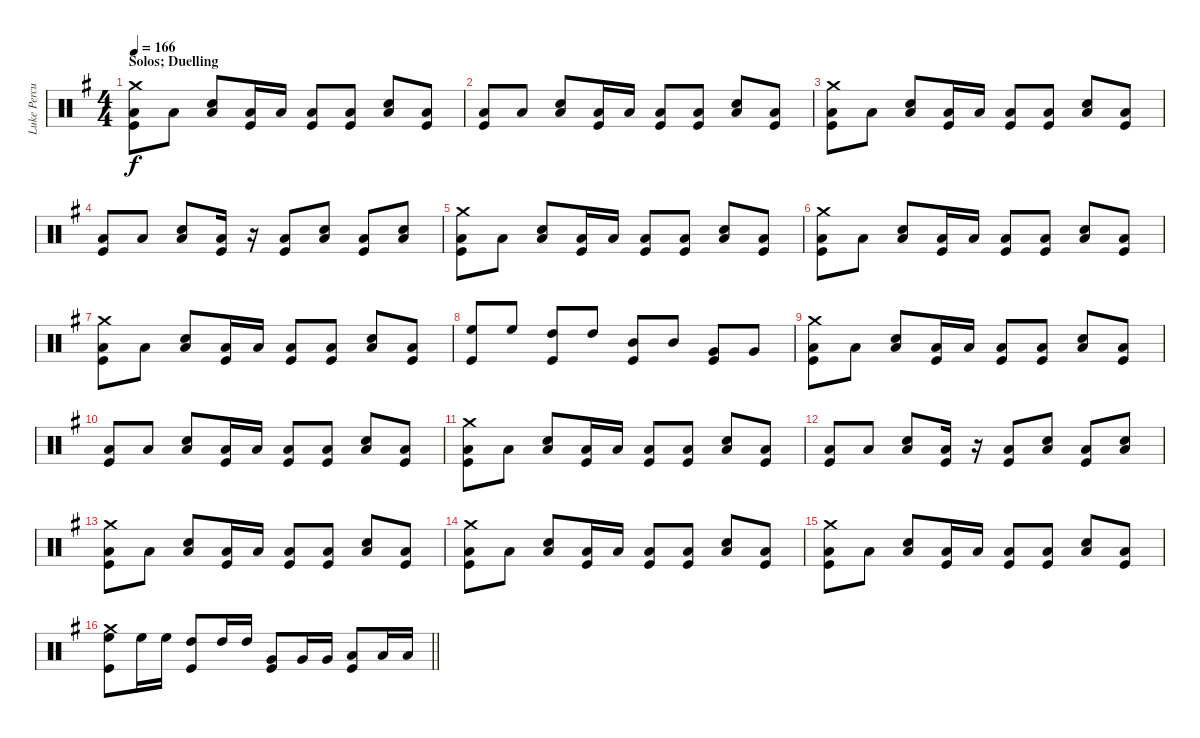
\track ("Luke Percussion" "Luke Percu") {instrument percussion}
\staff {score}
\articulation defaults
\ts (4 4)
\section ("" "Solos; Duelling")
\tempo 166
\clef neutral
\ks eminor
("Crash medium (hit)" "Low Floor Tom (hit)" "Kick (hit)").8{dy f} "Low Floor Tom (hit)".8 ("Snare (hit) 2" "Low Floor Tom (hit)").8 ("Low Floor Tom (hit)" "Kick (hit)").16 "Low Floor Tom (hit)".16 ("Low Floor Tom (hit)" "Kick (hit)").8 ("Low Floor Tom (hit)" "Kick (hit)").8 ("Snare (hit) 2" "Low Floor Tom (hit)").8 ("Low Floor Tom (hit)" "Kick (hit)").8 |
("Low Floor Tom (hit)" "Kick (hit)").8 "Low Floor Tom (hit)".8 ("Snare (hit) 2" "Low Floor Tom (hit)").8 ("Low Floor Tom (hit)" "Kick (hit)").16 "Low Floor Tom (hit)".16 ("Low Floor Tom (hit)" "Kick (hit)").8 ("Low Floor Tom (hit)" "Kick (hit)").8 ("Snare (hit) 2" "Low Floor Tom (hit)").8 ("Low Floor Tom (hit)" "Kick (hit)").8 |
("Crash medium (hit)" "Low Floor Tom (hit)" "Kick (hit)").8 "Low Floor Tom (hit)".8 ("Snare (hit) 2" "Low Floor Tom (hit)").8 ("Low Floor Tom (hit)" "Kick (hit)").16 "Low Floor Tom (hit)".16 ("Low Floor Tom (hit)" "Kick (hit)").8 ("Low Floor Tom (hit)" "Kick (hit)").8 ("Snare (hit) 2" "Low Floor Tom (hit)").8 ("Low Floor Tom (hit)" "Kick (hit)").8 |
("Low Floor Tom (hit)" "Kick (hit)").8 "Low Floor Tom (hit)".8 ("Snare (hit) 2" "Low Floor Tom (hit)").8 ("Low Floor Tom (hit)" "Kick (hit)").16 r.16 ("Low Floor Tom (hit)" "Kick (hit)").8 ("Snare (hit) 2" "Low Floor Tom (hit)").8 ("Low Floor Tom (hit)" "Kick (hit)").8 ("Snare (hit) 2" "Low Floor Tom (hit)").8 |
("Crash medium (hit)" "Low Floor Tom (hit)" "Kick (hit)").8 "Low Floor Tom (hit)".8 ("Snare (hit) 2" "Low Floor Tom (hit)").8 ("Low Floor Tom (hit)" "Kick (hit)").16 "Low Floor Tom (hit)".16 ("Low Floor Tom (hit)" "Kick (hit)").8 ("Low Floor Tom (hit)" "Kick (hit)").8 ("Snare (hit) 2" "Low Floor Tom (hit)").8 ("Low Floor Tom (hit)" "Kick (hit)").8 |
("Crash medium (hit)" "Low Floor Tom (hit)" "Kick (hit)").8 "Low Floor Tom (hit)".8 ("Snare (hit) 2" "Low Floor Tom (hit)").8 ("Low Floor Tom (hit)" "Kick (hit)").16 "Low Floor Tom (hit)".16 ("Low Floor Tom (hit)" "Kick (hit)").8 ("Low Floor Tom (hit)" "Kick (hit)").8 ("Snare (hit) 2" "Low Floor Tom (hit)").8 ("Low Floor Tom (hit)" "Kick (hit)").8 |
("Crash medium (hit)" "Low Floor Tom (hit)" "Kick (hit)").8 "Low Floor Tom (hit)".8 ("Snare (hit) 2" "Low Floor Tom (hit)").8 ("Low Floor Tom (hit)" "Kick (hit)").16 "Low Floor Tom (hit)".16 ("Low Floor Tom (hit)" "Kick (hit)").8 ("Low Floor Tom (hit)" "Kick (hit)").8 ("Snare (hit) 2" "Low Floor Tom (hit)").8 ("Low Floor Tom (hit)" "Kick (hit)").8 |
("High Floor Tom (hit)" "Kick (hit)").8 "High Floor Tom (hit)".8 ("High Tom (hit)" "Kick (hit)").8 "High Tom (hit)".8 ("Mid Tom (hit)" "Kick (hit)").8 "Mid Tom (hit)".8 ("Very Low Tom (hit)" "Kick (hit)").8 "Very Low Tom (hit)".8 |
("Crash medium (hit)" "Low Floor Tom (hit)" "Kick (hit)").8 "Low Floor Tom (hit)".8 ("Snare (hit) 2" "Low Floor Tom (hit)").8 ("Low Floor Tom (hit)" "Kick (hit)").16 "Low Floor Tom (hit)".16 ("Low Floor Tom (hit)" "Kick (hit)").8 ("Low Floor Tom (hit)" "Kick (hit)").8 ("Snare (hit) 2" "Low Floor Tom (hit)").8 ("Low Floor Tom (hit)" "Kick (hit)").8 |
("Low Floor Tom (hit)" "Kick (hit)").8 "Low Floor Tom (hit)".8 ("Snare (hit) 2" "Low Floor Tom (hit)").8 ("Low Floor Tom (hit)" "Kick (hit)").16 "Low Floor Tom (hit)".16 ("Low Floor Tom (hit)" "Kick (hit)").8 ("Low Floor Tom (hit)" "Kick (hit)").8 ("Snare (hit) 2" "Low Floor Tom (hit)").8 ("Low Floor Tom (hit)" "Kick (hit)").8 |
("Crash medium (hit)" "Low Floor Tom (hit)" "Kick (hit)").8 "Low Floor Tom (hit)".8 ("Snare (hit) 2" "Low Floor Tom (hit)").8 ("Low Floor Tom (hit)" "Kick (hit)").16 "Low Floor Tom (hit)".16 ("Low Floor Tom (hit)" "Kick (hit)").8 ("Low Floor Tom (hit)" "Kick (hit)").8 ("Snare (hit) 2" "Low Floor Tom (hit)").8 ("Low Floor Tom (hit)" "Kick (hit)").8 |
("Low Floor Tom (hit)" "Kick (hit)").8 "Low Floor Tom (hit)".8 ("Snare (hit) 2" "Low Floor Tom (hit)").8 ("Low Floor Tom (hit)" "Kick (hit)").16 r.16 ("Low Floor Tom (hit)" "Kick (hit)").8 ("Snare (hit) 2" "Low Floor Tom (hit)").8 ("Low Floor Tom (hit)" "Kick (hit)").8 ("Snare (hit) 2" "Low Floor Tom (hit)").8 |
("Crash medium (hit)" "Low Floor Tom (hit)" "Kick (hit)").8 "Low Floor Tom (hit)".8 ("Snare (hit) 2" "Low Floor Tom (hit)").8 ("Low Floor Tom (hit)" "Kick (hit)").16 "Low Floor Tom (hit)".16 ("Low Floor Tom (hit)" "Kick (hit)").8 ("Low Floor Tom (hit)" "Kick (hit)").8 ("Snare (hit) 2" "Low Floor Tom (hit)").8 ("Low Floor Tom (hit)" "Kick (hit)").8 |
("Crash medium (hit)" "Low Floor Tom (hit)" "Kick (hit)").8 "Low Floor Tom (hit)".8 ("Snare (hit) 2" "Low Floor Tom (hit)").8 ("Low Floor Tom (hit)" "Kick (hit)").16 "Low Floor Tom (hit)".16 ("Low Floor Tom (hit)" "Kick (hit)").8 ("Low Floor Tom (hit)" "Kick (hit)").8 ("Snare (hit) 2" "Low Floor Tom (hit)").8 ("Low Floor Tom (hit)" "Kick (hit)").8 |
("Crash medium (hit)" "Low Floor Tom (hit)" "Kick (hit)").8 "Low Floor Tom (hit)".8 ("Snare (hit) 2" "Low Floor Tom (hit)").8 ("Low Floor Tom (hit)" "Kick (hit)").16 "Low Floor Tom (hit)".16 ("Low Floor Tom (hit)" "Kick (hit)").8 ("Low Floor Tom (hit)" "Kick (hit)").8 ("Snare (hit) 2" "Low Floor Tom (hit)").8 ("Low Floor Tom (hit)" "Kick (hit)").8 |
\barLineRight lightlight
("Crash medium (hit)" "High Floor Tom (hit)" "Kick (hit)").8 "High Floor Tom (hit)".16 "High Floor Tom (hit)".16 ("High Tom (hit)" "Kick (hit)").8 "High Tom (hit)".16 "High Tom (hit)".16 ("Very Low Tom (hit)" "Kick (hit)").8 "Very Low Tom (hit)".16 "Very Low Tom (hit)".16 ("Low Floor Tom (hit)" "Kick (hit)").8 "Low Floor Tom (hit)".16 "Low Floor Tom (hit)".16
